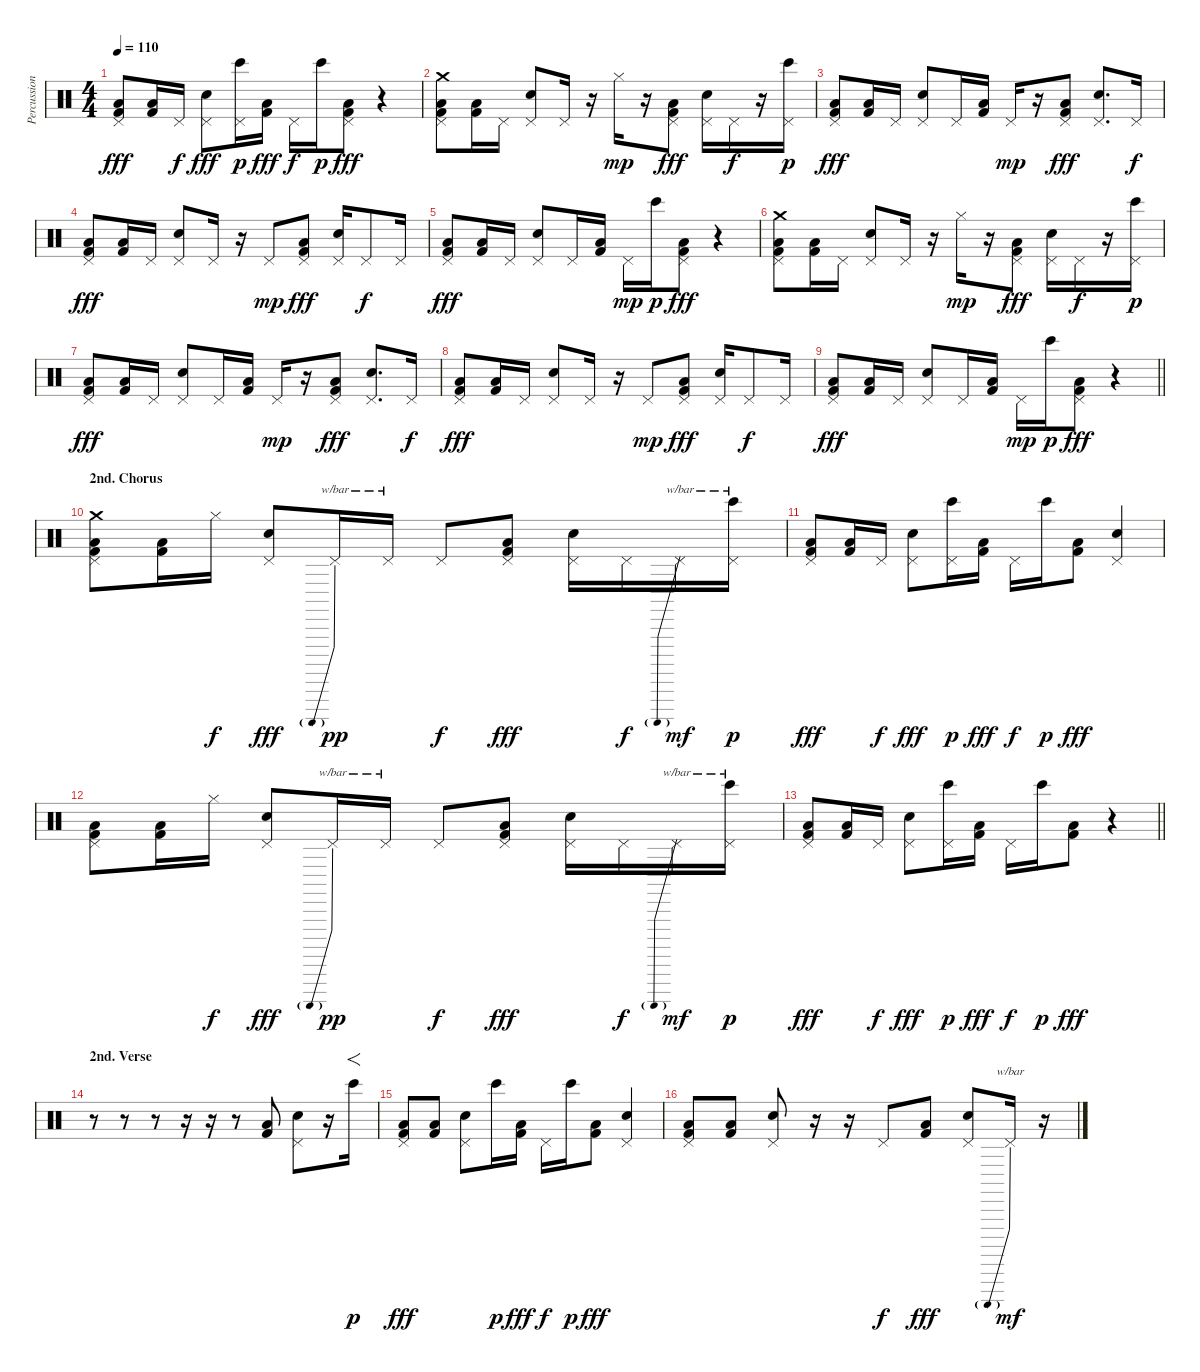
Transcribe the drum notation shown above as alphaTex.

\track ("Percussion" "Percussion") {instrument percussion}
\staff {score}
\articulation defaults
\ts (4 4)
\tempo 110
\clef neutral
\ks c
("Pedal Hi-Hat (hit)" "Kick (hit) 2" "Low Floor Tom (hit)"{be (hold 0 0 60 0)}).8{dy fff} ("Kick (hit) 2" "Low Floor Tom (hit)"{be (hold 0 0 60 0)}).16 "Pedal Hi-Hat (hit)".16{dy f} ("Pedal Hi-Hat (hit)" "Hand Clap (hit)").8{dy fff} ("Pedal Hi-Hat (hit)" "Bongo High (hit)").16{dy p} ("Kick (hit) 2" "Low Floor Tom (hit)"{be (hold 0 0 60 0)}).16{dy fff} "Pedal Hi-Hat (hit)".16{dy f} "Bongo High (hit)".16{dy p} ("Pedal Hi-Hat (hit)" "Kick (hit) 2" "Low Floor Tom (hit)"{be (hold 0 0 60 0)}).8{dy fff} r.4 |
("Crash medium (hit)" "Pedal Hi-Hat (hit)" "Kick (hit) 2" "Low Floor Tom (hit)"{be (hold 0 0 60 0)}).8 ("Kick (hit) 2" "Low Floor Tom (hit)"{be (hold 0 0 60 0)}).16 "Pedal Hi-Hat (hit)".16 ("Pedal Hi-Hat (hit)" "Hand Clap (hit)").8 "Pedal Hi-Hat (hit)".16 r.16 "Hi-Hat (closed)".16{dy mp} r.16 ("Pedal Hi-Hat (hit)" "Kick (hit) 2" "Low Floor Tom (hit)"{be (hold 0 0 60 0)}).8{dy fff} ("Pedal Hi-Hat (hit)" "Hand Clap (hit)").16 "Pedal Hi-Hat (hit)".16{dy f} r.16 ("Pedal Hi-Hat (hit)" "Bongo High (hit)").16{dy p} |
("Pedal Hi-Hat (hit)" "Kick (hit) 2" "Low Floor Tom (hit)"{be (hold 0 0 60 0)}).8{dy fff} ("Kick (hit) 2" "Low Floor Tom (hit)"{be (hold 0 0 60 0)}).16 "Pedal Hi-Hat (hit)".16 ("Pedal Hi-Hat (hit)" "Hand Clap (hit)").8 "Pedal Hi-Hat (hit)".16 ("Kick (hit) 2" "Low Floor Tom (hit)"{be (hold 0 0 60 0)}).16 "Pedal Hi-Hat (hit)".16{dy mp} r.16 ("Pedal Hi-Hat (hit)" "Kick (hit) 2" "Low Floor Tom (hit)"{be (hold 0 0 60 0)}).8{dy fff} ("Pedal Hi-Hat (hit)" "Hand Clap (hit)").8{d} "Pedal Hi-Hat (hit)".16{dy f} |
("Pedal Hi-Hat (hit)" "Kick (hit) 2" "Low Floor Tom (hit)"{be (hold 0 0 60 0)}).8{dy fff} ("Kick (hit) 2" "Low Floor Tom (hit)"{be (hold 0 0 60 0)}).16 "Pedal Hi-Hat (hit)".16 ("Pedal Hi-Hat (hit)" "Hand Clap (hit)").8 "Pedal Hi-Hat (hit)".16 r.16 "Pedal Hi-Hat (hit)".8{dy mp} ("Pedal Hi-Hat (hit)" "Kick (hit) 2" "Low Floor Tom (hit)"{be (hold 0 0 60 0)}).8{dy fff} ("Pedal Hi-Hat (hit)" "Hand Clap (hit)").16 "Pedal Hi-Hat (hit)".8{dy f} "Pedal Hi-Hat (hit)".16 |
("Pedal Hi-Hat (hit)" "Kick (hit) 2" "Low Floor Tom (hit)"{be (hold 0 0 60 0)}).8{dy fff} ("Kick (hit) 2" "Low Floor Tom (hit)"{be (hold 0 0 60 0)}).16 "Pedal Hi-Hat (hit)".16 ("Pedal Hi-Hat (hit)" "Hand Clap (hit)").8 "Pedal Hi-Hat (hit)".16 ("Kick (hit) 2" "Low Floor Tom (hit)"{be (hold 0 0 60 0)}).16 "Pedal Hi-Hat (hit)".16{dy mp} "Bongo High (hit)".16{dy p} ("Pedal Hi-Hat (hit)" "Kick (hit) 2" "Low Floor Tom (hit)"{be (hold 0 0 60 0)}).8{dy fff} r.4 |
("Crash medium (hit)" "Pedal Hi-Hat (hit)" "Kick (hit) 2" "Low Floor Tom (hit)"{be (hold 0 0 60 0)}).8 ("Kick (hit) 2" "Low Floor Tom (hit)"{be (hold 0 0 60 0)}).16 "Pedal Hi-Hat (hit)".16 ("Pedal Hi-Hat (hit)" "Hand Clap (hit)").8 "Pedal Hi-Hat (hit)".16 r.16 "Hi-Hat (closed)".16{dy mp} r.16 ("Pedal Hi-Hat (hit)" "Kick (hit) 2" "Low Floor Tom (hit)"{be (hold 0 0 60 0)}).8{dy fff} ("Pedal Hi-Hat (hit)" "Hand Clap (hit)").16 "Pedal Hi-Hat (hit)".16{dy f} r.16 ("Pedal Hi-Hat (hit)" "Bongo High (hit)").16{dy p} |
("Pedal Hi-Hat (hit)" "Kick (hit) 2" "Low Floor Tom (hit)"{be (hold 0 0 60 0)}).8{dy fff} ("Kick (hit) 2" "Low Floor Tom (hit)"{be (hold 0 0 60 0)}).16 "Pedal Hi-Hat (hit)".16 ("Pedal Hi-Hat (hit)" "Hand Clap (hit)").8 "Pedal Hi-Hat (hit)".16 ("Kick (hit) 2" "Low Floor Tom (hit)"{be (hold 0 0 60 0)}).16 "Pedal Hi-Hat (hit)".16{dy mp} r.16 ("Pedal Hi-Hat (hit)" "Kick (hit) 2" "Low Floor Tom (hit)"{be (hold 0 0 60 0)}).8{dy fff} ("Pedal Hi-Hat (hit)" "Hand Clap (hit)").8{d} "Pedal Hi-Hat (hit)".16{dy f} |
("Pedal Hi-Hat (hit)" "Kick (hit) 2" "Low Floor Tom (hit)"{be (hold 0 0 60 0)}).8{dy fff} ("Kick (hit) 2" "Low Floor Tom (hit)"{be (hold 0 0 60 0)}).16 "Pedal Hi-Hat (hit)".16 ("Pedal Hi-Hat (hit)" "Hand Clap (hit)").8 "Pedal Hi-Hat (hit)".16 r.16 "Pedal Hi-Hat (hit)".8{dy mp} ("Pedal Hi-Hat (hit)" "Kick (hit) 2" "Low Floor Tom (hit)"{be (hold 0 0 60 0)}).8{dy fff} ("Pedal Hi-Hat (hit)" "Hand Clap (hit)").16 "Pedal Hi-Hat (hit)".8{dy f} "Pedal Hi-Hat (hit)".16 |
\barLineRight lightlight
("Pedal Hi-Hat (hit)" "Kick (hit) 2" "Low Floor Tom (hit)"{be (hold 0 0 60 0)}).8{dy fff} ("Kick (hit) 2" "Low Floor Tom (hit)"{be (hold 0 0 60 0)}).16 "Pedal Hi-Hat (hit)".16 ("Pedal Hi-Hat (hit)" "Hand Clap (hit)").8 "Pedal Hi-Hat (hit)".16 ("Kick (hit) 2" "Low Floor Tom (hit)"{be (hold 0 0 60 0)}).16 "Pedal Hi-Hat (hit)".16{dy mp} "Bongo High (hit)".16{dy p} ("Pedal Hi-Hat (hit)" "Kick (hit) 2" "Low Floor Tom (hit)"{be (hold 0 0 60 0)}).8{dy fff} r.4 |
\section ("" "2nd. Chorus")
("Crash medium (hit)" "Pedal Hi-Hat (hit)" "Kick (hit) 2" "Low Floor Tom (hit)"{be (hold 0 0 60 0)}).8 ("Kick (hit) 2" "Low Floor Tom (hit)"{be (hold 0 0 60 0)}).16 "Hi-Hat (closed)".16{dy f} ("Pedal Hi-Hat (hit)" "Hand Clap (hit)").8{dy fff} "Pedal Hi-Hat (hit)".16{tbe (predive default 0 -24 60 -24) dy pp} "Pedal Hi-Hat (hit)".16{tbe (hold default 0 -14 60 -14)} "Pedal Hi-Hat (hit)".8{dy f} ("Pedal Hi-Hat (hit)" "Kick (hit) 2" "Low Floor Tom (hit)"{be (hold 0 0 60 0)}).8{dy fff} ("Pedal Hi-Hat (hit)" "Hand Clap (hit)").16 "Pedal Hi-Hat (hit)".16{dy f} "Pedal Hi-Hat (hit)".16{tbe (predive default 0 -24 60 -24) dy mf} ("Pedal Hi-Hat (hit)" "Bongo High (hit)").16{tbe (hold default 0 -14 60 -14) dy p} |
("Pedal Hi-Hat (hit)" "Kick (hit) 2" "Low Floor Tom (hit)"{be (hold 0 0 60 0)}).8{dy fff} ("Kick (hit) 2" "Low Floor Tom (hit)"{be (hold 0 0 60 0)}).16 "Pedal Hi-Hat (hit)".16{dy f} ("Pedal Hi-Hat (hit)" "Hand Clap (hit)").8{dy fff} ("Pedal Hi-Hat (hit)" "Bongo High (hit)").16{dy p} ("Kick (hit) 2" "Low Floor Tom (hit)"{be (hold 0 0 60 0)}).16{dy fff} "Pedal Hi-Hat (hit)".16{dy f} "Bongo High (hit)".16{dy p} ("Kick (hit) 2" "Low Floor Tom (hit)"{be (hold 0 0 60 0)}).8{dy fff} ("Pedal Hi-Hat (hit)" "Hand Clap (hit)").4 |
("Pedal Hi-Hat (hit)" "Kick (hit) 2" "Low Floor Tom (hit)"{be (hold 0 0 60 0)}).8 ("Kick (hit) 2" "Low Floor Tom (hit)"{be (hold 0 0 60 0)}).16 "Hi-Hat (closed)".16{dy f} ("Pedal Hi-Hat (hit)" "Hand Clap (hit)").8{dy fff} "Pedal Hi-Hat (hit)".16{tbe (predive default 0 -24 60 -24) dy pp} "Pedal Hi-Hat (hit)".16{tbe (hold default 0 -14 60 -14)} "Pedal Hi-Hat (hit)".8{dy f} ("Pedal Hi-Hat (hit)" "Kick (hit) 2" "Low Floor Tom (hit)"{be (hold 0 0 60 0)}).8{dy fff} ("Pedal Hi-Hat (hit)" "Hand Clap (hit)").16 "Pedal Hi-Hat (hit)".16{dy f} "Pedal Hi-Hat (hit)".16{tbe (predive default 0 -24 60 -24) dy mf} ("Pedal Hi-Hat (hit)" "Bongo High (hit)").16{tbe (hold default 0 -14 60 -14) dy p} |
\barLineRight lightlight
("Pedal Hi-Hat (hit)" "Kick (hit) 2" "Low Floor Tom (hit)"{be (hold 0 0 60 0)}).8{dy fff} ("Kick (hit) 2" "Low Floor Tom (hit)"{be (hold 0 0 60 0)}).16 "Pedal Hi-Hat (hit)".16{dy f} ("Pedal Hi-Hat (hit)" "Hand Clap (hit)").8{dy fff} ("Pedal Hi-Hat (hit)" "Bongo High (hit)").16{dy p} ("Kick (hit) 2" "Low Floor Tom (hit)"{be (hold 0 0 60 0)}).16{dy fff} "Pedal Hi-Hat (hit)".16{dy f} "Bongo High (hit)".16{dy p} ("Kick (hit) 2" "Low Floor Tom (hit)"{be (hold 0 0 60 0)}).8{dy fff} r.4 |
\section ("" "2nd. Verse")
r.8 r.8 r.8 r.16 r.16 r.8 ("Kick (hit) 2" "Low Floor Tom (hit)"{be (hold 0 0 60 0)}).8 ("Pedal Hi-Hat (hit)" "Hand Clap (hit)").8 r.16 "Bongo High (hit)".16{f dy p} |
("Pedal Hi-Hat (hit)" "Kick (hit) 2" "Low Floor Tom (hit)"{be (hold 0 0 60 0)}).8{dy fff} ("Kick (hit) 2" "Low Floor Tom (hit)"{be (hold 0 0 60 0)}).8 ("Pedal Hi-Hat (hit)" "Hand Clap (hit)").8 "Bongo High (hit)".16{dy p} ("Kick (hit) 2" "Low Floor Tom (hit)"{be (hold 0 0 60 0)}).16{dy fff} "Pedal Hi-Hat (hit)".16{dy f} "Bongo High (hit)".16{dy p} ("Kick (hit) 2" "Low Floor Tom (hit)"{be (hold 0 0 60 0)}).8{dy fff} ("Pedal Hi-Hat (hit)" "Hand Clap (hit)").4 |
("Pedal Hi-Hat (hit)" "Kick (hit) 2" "Low Floor Tom (hit)"{be (hold 0 0 60 0)}).8 ("Kick (hit) 2" "Low Floor Tom (hit)"{be (hold 0 0 60 0)}).8 ("Pedal Hi-Hat (hit)" "Hand Clap (hit)").8 r.16 r.16 "Pedal Hi-Hat (hit)".8{dy f} ("Kick (hit) 2" "Low Floor Tom (hit)"{be (hold 0 0 60 0)}).8{dy fff} ("Pedal Hi-Hat (hit)" "Hand Clap (hit)").8 "Pedal Hi-Hat (hit)".16{tbe (predive default 0 -24 60 -24) dy mf} r.16
